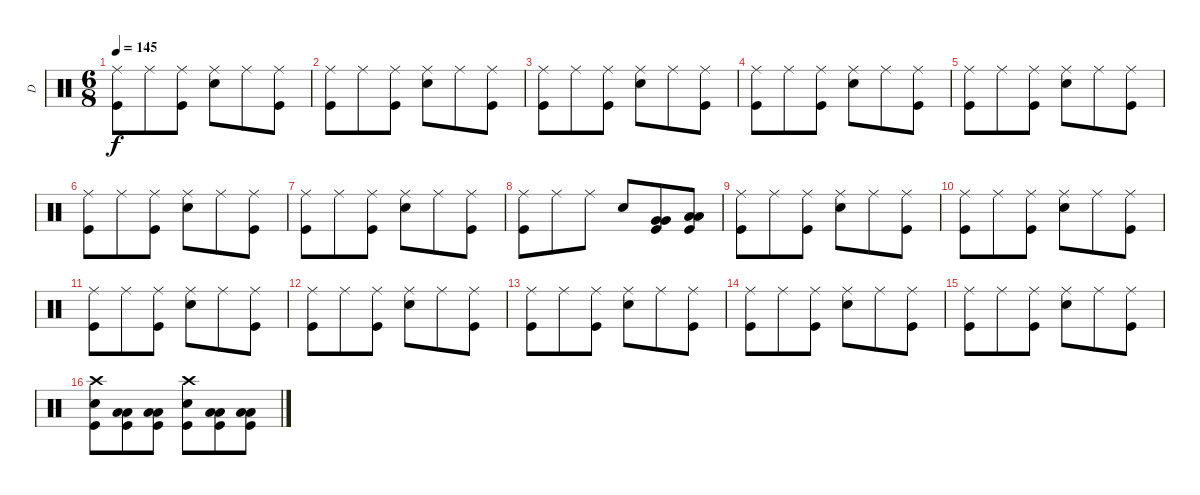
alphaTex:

\track ("D" "D") {instrument percussion}
\staff {score}
\articulation defaults
\ts (6 8)
\tempo 145
\clef neutral
\ks c
("Ride (middle)" "Kick (hit)").8{dy f} "Ride (middle)".8 ("Ride (middle)" "Kick (hit)").8 ("Ride (middle)" "Snare (hit) 2").8 "Ride (middle)".8 ("Ride (middle)" "Kick (hit)").8 |
("Ride (middle)" "Kick (hit)").8 "Ride (middle)".8 ("Ride (middle)" "Kick (hit)").8 ("Ride (middle)" "Snare (hit) 2").8 "Ride (middle)".8 ("Ride (middle)" "Kick (hit)").8 |
("Ride (middle)" "Kick (hit)").8 "Ride (middle)".8 ("Ride (middle)" "Kick (hit)").8 ("Ride (middle)" "Snare (hit) 2").8 "Ride (middle)".8 ("Ride (middle)" "Kick (hit)").8 |
("Ride (middle)" "Kick (hit)").8 "Ride (middle)".8 ("Ride (middle)" "Kick (hit)").8 ("Ride (middle)" "Snare (hit) 2").8 "Ride (middle)".8 ("Ride (middle)" "Kick (hit)").8 |
("Ride (middle)" "Kick (hit)").8 "Ride (middle)".8 ("Ride (middle)" "Kick (hit)").8 ("Ride (middle)" "Snare (hit) 2").8 "Ride (middle)".8 ("Ride (middle)" "Kick (hit)").8 |
("Ride (middle)" "Kick (hit)").8 "Ride (middle)".8 ("Ride (middle)" "Kick (hit)").8 ("Ride (middle)" "Snare (hit) 2").8 "Ride (middle)".8 ("Ride (middle)" "Kick (hit)").8 |
("Ride (middle)" "Kick (hit)").8 "Ride (middle)".8 ("Ride (middle)" "Kick (hit)").8 ("Ride (middle)" "Snare (hit) 2").8 "Ride (middle)".8 ("Ride (middle)" "Kick (hit)").8 |
("Ride (middle)" "Kick (hit)").8 "Ride (middle)".8 "Ride (middle)".8 "Snare (hit) 2".8 ("Very Low Tom (hit)" "Very Low Tom (hit)" "Kick (hit)").8 ("Low Floor Tom (hit)" "Low Floor Tom (hit)" "Kick (hit)").8 |
("Ride (middle)" "Kick (hit)").8 "Ride (middle)".8 ("Ride (middle)" "Kick (hit)").8 ("Ride (middle)" "Snare (hit) 2").8 "Ride (middle)".8 ("Ride (middle)" "Kick (hit)").8 |
("Ride (middle)" "Kick (hit)").8 "Ride (middle)".8 ("Ride (middle)" "Kick (hit)").8 ("Ride (middle)" "Snare (hit) 2").8 "Ride (middle)".8 ("Ride (middle)" "Kick (hit)").8 |
("Ride (middle)" "Kick (hit)").8 "Ride (middle)".8 ("Ride (middle)" "Kick (hit)").8 ("Ride (middle)" "Snare (hit) 2").8 "Ride (middle)".8 ("Ride (middle)" "Kick (hit)").8 |
("Ride (middle)" "Kick (hit)").8 "Ride (middle)".8 ("Ride (middle)" "Kick (hit)").8 ("Ride (middle)" "Snare (hit) 2").8 "Ride (middle)".8 ("Ride (middle)" "Kick (hit)").8 |
("Ride (middle)" "Kick (hit)").8 "Ride (middle)".8 ("Ride (middle)" "Kick (hit)").8 ("Ride (middle)" "Snare (hit) 2").8 "Ride (middle)".8 ("Ride (middle)" "Kick (hit)").8 |
("Ride (middle)" "Kick (hit)").8 "Ride (middle)".8 ("Ride (middle)" "Kick (hit)").8 ("Ride (middle)" "Snare (hit) 2").8 "Ride (middle)".8 ("Ride (middle)" "Kick (hit)").8 |
("Ride (middle)" "Kick (hit)").8 "Ride (middle)".8 ("Ride (middle)" "Kick (hit)").8 ("Ride (middle)" "Snare (hit) 2").8 "Ride (middle)".8 ("Ride (middle)" "Kick (hit)").8 |
("Crash high (hit)" "Snare (hit) 2" "Kick (hit)").8 ("Low Tom (hit)" "Low Tom (hit)" "Kick (hit)").8 ("Low Floor Tom (hit)" "Low Floor Tom (hit)" "Kick (hit)").8 ("Crash high (hit)" "Snare (hit) 2" "Kick (hit)").8 ("Low Tom (hit)" "Low Tom (hit)" "Kick (hit)").8 ("Low Floor Tom (hit)" "Low Floor Tom (hit)" "Kick (hit)").8
